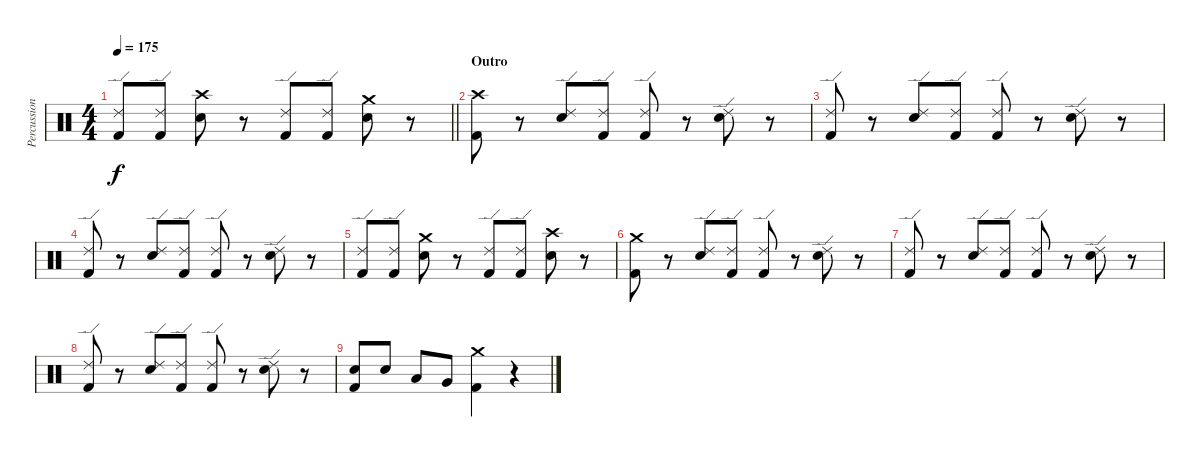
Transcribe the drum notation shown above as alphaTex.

\track ("Percussion" "Percussion") {instrument percussion}
\staff {score}
\articulation defaults
\ts (4 4)
\tempo 175
\clef neutral
\barLineRight lightlight
\ks c
("Ride (edge) 2" "Kick (hit) 2").8{dy f} ("Ride (edge) 2" "Kick (hit) 2").8 ("Crash high (hit)" "Electric Snare (hit)").8 r.8 ("Ride (edge) 2" "Kick (hit) 2").8 ("Ride (edge) 2" "Kick (hit) 2").8 ("Crash medium (hit)" "Electric Snare (hit)").8 r.8 |
\section ("" "Outro")
("Crash high (hit)" "Kick (hit) 2").8 r.8 ("Ride (edge) 2" "Electric Snare (hit)").8 ("Ride (edge) 2" "Kick (hit) 2").8 ("Ride (edge) 2" "Kick (hit) 2").8 r.8 ("Ride (edge) 2" "Electric Snare (hit)").8 r.8 |
("Ride (edge) 2" "Kick (hit) 2").8 r.8 ("Ride (edge) 2" "Electric Snare (hit)").8 ("Ride (edge) 2" "Kick (hit) 2").8 ("Ride (edge) 2" "Kick (hit) 2").8 r.8 ("Ride (edge) 2" "Electric Snare (hit)").8 r.8 |
("Ride (edge) 2" "Kick (hit) 2").8 r.8 ("Ride (edge) 2" "Electric Snare (hit)").8 ("Ride (edge) 2" "Kick (hit) 2").8 ("Ride (edge) 2" "Kick (hit) 2").8 r.8 ("Ride (edge) 2" "Electric Snare (hit)").8 r.8 |
("Ride (edge) 2" "Kick (hit) 2").8 ("Ride (edge) 2" "Kick (hit) 2").8 ("Crash medium (hit)" "Electric Snare (hit)").8 r.8 ("Ride (edge) 2" "Kick (hit) 2").8 ("Ride (edge) 2" "Kick (hit) 2").8 ("Crash high (hit)" "Electric Snare (hit)").8 r.8 |
("Crash medium (hit)" "Kick (hit) 2").8 r.8 ("Ride (edge) 2" "Electric Snare (hit)").8 ("Ride (edge) 2" "Kick (hit) 2").8 ("Ride (edge) 2" "Kick (hit) 2").8 r.8 ("Ride (edge) 2" "Electric Snare (hit)").8 r.8 |
("Ride (edge) 2" "Kick (hit) 2").8 r.8 ("Ride (edge) 2" "Electric Snare (hit)").8 ("Ride (edge) 2" "Kick (hit) 2").8 ("Ride (edge) 2" "Kick (hit) 2").8 r.8 ("Ride (edge) 2" "Electric Snare (hit)").8 r.8 |
("Ride (edge) 2" "Kick (hit) 2").8 r.8 ("Ride (edge) 2" "Electric Snare (hit)").8 ("Ride (edge) 2" "Kick (hit) 2").8 ("Ride (edge) 2" "Kick (hit) 2").8 r.8 ("Ride (edge) 2" "Electric Snare (hit)").8 r.8 |
("Electric Snare (hit)" "Kick (hit) 2").8 "Electric Snare (hit)".8 "Low Tom (hit)".8 "Very Low Tom (hit)".8 ("Crash medium (hit)" "Kick (hit) 2").4 r.4
